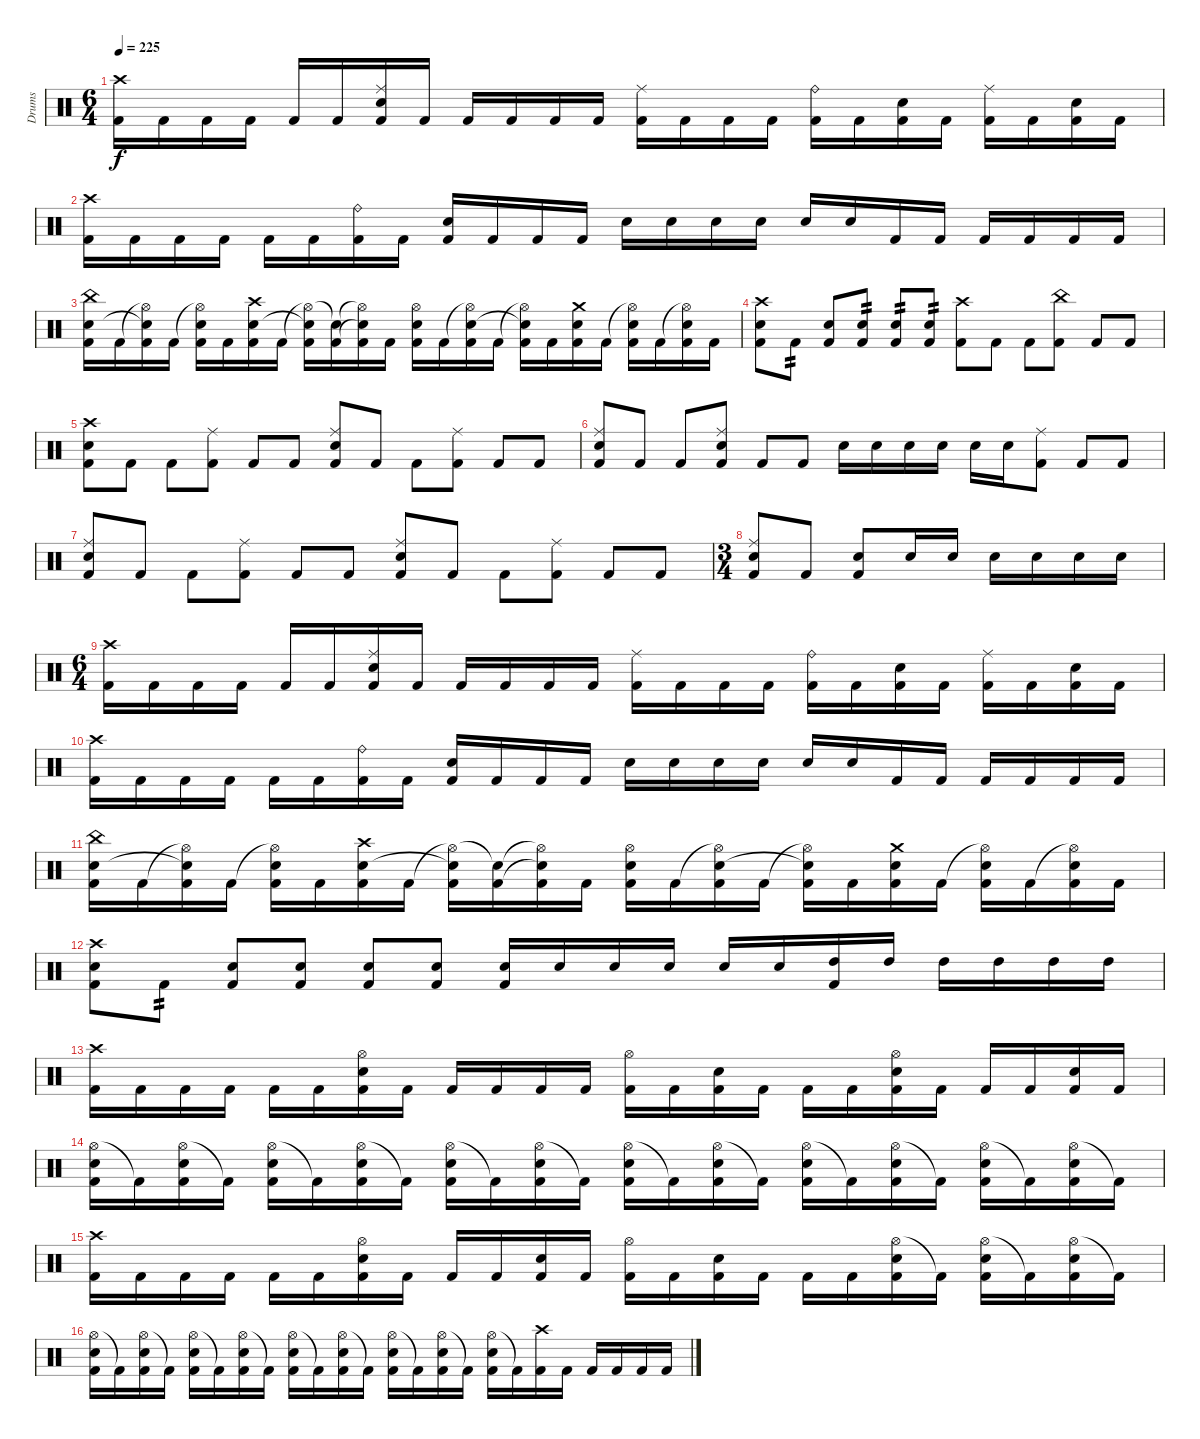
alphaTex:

\track ("Drums" "Drums") {instrument percussion}
\staff {score}
\articulation defaults
\ts (6 4)
\tempo 225
\clef neutral
\ks c
("Crash high (hit)" "Kick (hit) 2").16{dy f} "Kick (hit) 2".16 "Kick (hit) 2".16 "Kick (hit) 2".16 "Kick (hit) 2".16 "Kick (hit) 2".16 ("Ride (middle)" "Snare (hit) 2" "Kick (hit) 2").16 "Kick (hit) 2".16 "Kick (hit) 2".16 "Kick (hit) 2".16 "Kick (hit) 2".16 "Kick (hit) 2".16 ("Ride (middle)" "Kick (hit) 2").16 "Kick (hit) 2".16 "Kick (hit) 2".16 "Kick (hit) 2".16 ("Ride (bell)" "Kick (hit) 2").16 "Kick (hit) 2".16 ("Snare (hit) 2" "Kick (hit) 2").16 "Kick (hit) 2".16 ("Ride (middle)" "Kick (hit) 2").16 "Kick (hit) 2".16 ("Snare (hit) 2" "Kick (hit) 2").16 "Kick (hit) 2".16 |
("Crash high (hit)" "Kick (hit) 2").16 "Kick (hit) 2".16 "Kick (hit) 2".16 "Kick (hit) 2".16 "Kick (hit) 2".16 "Kick (hit) 2".16 ("Ride (bell)" "Kick (hit) 2").16 "Kick (hit) 2".16 ("Snare (hit) 2" "Kick (hit) 2").16 "Kick (hit) 2".16 "Kick (hit) 2".16 "Kick (hit) 2".16 "Snare (hit) 2".16 "Snare (hit) 2".16 "Snare (hit) 2".16 "Snare (hit) 2".16 "Snare (hit) 2".16 "Snare (hit) 2".16 "Kick (hit) 2".16 "Kick (hit) 2".16 "Kick (hit) 2".16 "Kick (hit) 2".16 "Kick (hit) 2".16 "Kick (hit) 2".16 |
("China (hit)" "Snare (hit) 2" "Kick (hit) 2").16 "Kick (hit) 2".16 ("Hi-Hat (open)"{t} "Snare (hit) 2"{t} "Kick (hit) 2").16 "Kick (hit) 2".16 ("Hi-Hat (open)"{t} "Snare (hit) 2" "Kick (hit) 2").16 "Kick (hit) 2".16 ("Crash high (hit)" "Snare (hit) 2" "Kick (hit) 2").16 "Kick (hit) 2".16 ("Hi-Hat (open)"{t} "Snare (hit) 2"{t} "Kick (hit) 2").16 ("Snare (hit)"{t} "Kick (hit) 2").16 ("Hi-Hat (open)"{t} "Snare (hit) 2"{t} "Kick (hit) 2").16 "Kick (hit) 2".16 ("Hi-Hat (open)" "Snare (hit) 2" "Kick (hit) 2").16 "Kick (hit) 2".16 ("Hi-Hat (open)"{t} "Snare (hit) 2" "Kick (hit) 2").16 "Kick (hit) 2".16 ("Hi-Hat (open)"{t} "Snare (hit) 2"{t} "Kick (hit) 2").16 "Kick (hit) 2".16 ("Crash medium (hit)" "Snare (hit) 2" "Kick (hit) 2").16 "Kick (hit) 2".16 ("Hi-Hat (open)"{t} "Snare (hit) 2" "Kick (hit) 2").16 "Kick (hit) 2".16 ("Hi-Hat (open)"{t} "Snare (hit) 2" "Kick (hit) 2").16 "Kick (hit) 2".16 |
("Crash high (hit)" "Snare (hit) 2" "Kick (hit) 2").8 "Kick (hit) 2".8{tp 2} ("Snare (hit) 2" "Kick (hit) 2").8 ("Snare (hit) 2" "Kick (hit) 2").8{tp 2} ("Snare (hit) 2" "Kick (hit) 2").8{tp 2} ("Snare (hit) 2" "Kick (hit) 2").8{tp 2} ("Crash high (hit)" "Kick (hit) 2").8 "Kick (hit) 2".8 "Kick (hit) 2".8 ("China (hit)" "Kick (hit) 2").8 "Kick (hit) 2".8 "Kick (hit) 2".8 |
("Crash high (hit)" "Snare (hit) 2" "Kick (hit) 2").8 "Kick (hit) 2".8 "Kick (hit) 2".8 ("Ride (middle)" "Kick (hit) 2").8 "Kick (hit) 2".8 "Kick (hit) 2".8 ("Ride (middle)" "Snare (hit) 2" "Kick (hit) 2").8 "Kick (hit) 2".8 "Kick (hit) 2".8 ("Ride (middle)" "Kick (hit) 2").8 "Kick (hit) 2".8 "Kick (hit) 2".8 |
("Ride (middle)" "Snare (hit) 2" "Kick (hit) 2").8 "Kick (hit) 2".8 "Kick (hit) 2".8 ("Ride (middle)" "Snare (hit) 2" "Kick (hit) 2").8 "Kick (hit) 2".8 "Kick (hit) 2".8 "Snare (hit) 2".16 "Snare (hit) 2".16 "Snare (hit) 2".16 "Snare (hit) 2".16 "Snare (hit) 2".16 "Snare (hit) 2".16 ("Ride (middle)" "Kick (hit) 2").8 "Kick (hit) 2".8 "Kick (hit) 2".8 |
("Ride (middle)" "Snare (hit) 2" "Kick (hit) 2").8 "Kick (hit) 2".8 "Kick (hit) 2".8 ("Ride (middle)" "Kick (hit) 2").8 "Kick (hit) 2".8 "Kick (hit) 2".8 ("Ride (middle)" "Snare (hit) 2" "Kick (hit) 2").8 "Kick (hit) 2".8 "Kick (hit) 2".8 ("Ride (middle)" "Kick (hit) 2").8 "Kick (hit) 2".8 "Kick (hit) 2".8 |
\ts (3 4)
("Ride (middle)" "Snare (hit) 2" "Kick (hit) 2").8 "Kick (hit) 2".8 ("Snare (hit) 2" "Kick (hit) 2").8 "Snare (hit) 2".16 "Snare (hit) 2".16 "Snare (hit) 2".16 "Snare (hit) 2".16 "Snare (hit) 2".16 "Snare (hit) 2".16 |
\ts (6 4)
("Crash high (hit)" "Kick (hit) 2").16 "Kick (hit) 2".16 "Kick (hit) 2".16 "Kick (hit) 2".16 "Kick (hit) 2".16 "Kick (hit) 2".16 ("Ride (middle)" "Snare (hit) 2" "Kick (hit) 2").16 "Kick (hit) 2".16 "Kick (hit) 2".16 "Kick (hit) 2".16 "Kick (hit) 2".16 "Kick (hit) 2".16 ("Ride (middle)" "Kick (hit) 2").16 "Kick (hit) 2".16 "Kick (hit) 2".16 "Kick (hit) 2".16 ("Ride (bell)" "Kick (hit) 2").16 "Kick (hit) 2".16 ("Snare (hit) 2" "Kick (hit) 2").16 "Kick (hit) 2".16 ("Ride (middle)" "Kick (hit) 2").16 "Kick (hit) 2".16 ("Snare (hit) 2" "Kick (hit) 2").16 "Kick (hit) 2".16 |
("Crash high (hit)" "Kick (hit) 2").16 "Kick (hit) 2".16 "Kick (hit) 2".16 "Kick (hit) 2".16 "Kick (hit) 2".16 "Kick (hit) 2".16 ("Ride (bell)" "Kick (hit) 2").16 "Kick (hit) 2".16 ("Snare (hit) 2" "Kick (hit) 2").16 "Kick (hit) 2".16 "Kick (hit) 2".16 "Kick (hit) 2".16 "Snare (hit) 2".16 "Snare (hit) 2".16 "Snare (hit) 2".16 "Snare (hit) 2".16 "Snare (hit) 2".16 "Snare (hit) 2".16 "Kick (hit) 2".16 "Kick (hit) 2".16 "Kick (hit) 2".16 "Kick (hit) 2".16 "Kick (hit) 2".16 "Kick (hit) 2".16 |
("China (hit)" "Snare (hit) 2" "Kick (hit) 2").16 "Kick (hit) 2".16 ("Hi-Hat (open)"{t} "Snare (hit) 2"{t} "Kick (hit) 2").16 "Kick (hit) 2".16 ("Hi-Hat (open)"{t} "Snare (hit) 2" "Kick (hit) 2").16 "Kick (hit) 2".16 ("Crash high (hit)" "Snare (hit) 2" "Kick (hit) 2").16 "Kick (hit) 2".16 ("Hi-Hat (open)"{t} "Snare (hit) 2"{t} "Kick (hit) 2").16 ("Snare (hit)"{t} "Kick (hit) 2").16 ("Hi-Hat (open)"{t} "Snare (hit) 2"{t} "Kick (hit) 2").16 "Kick (hit) 2".16 ("Hi-Hat (open)" "Snare (hit) 2" "Kick (hit) 2").16 "Kick (hit) 2".16 ("Hi-Hat (open)"{t} "Snare (hit) 2" "Kick (hit) 2").16 "Kick (hit) 2".16 ("Hi-Hat (open)"{t} "Snare (hit) 2"{t} "Kick (hit) 2").16 "Kick (hit) 2".16 ("Crash medium (hit)" "Snare (hit) 2" "Kick (hit) 2").16 "Kick (hit) 2".16 ("Hi-Hat (open)"{t} "Snare (hit) 2" "Kick (hit) 2").16 "Kick (hit) 2".16 ("Hi-Hat (open)"{t} "Snare (hit) 2" "Kick (hit) 2").16 "Kick (hit) 2".16 |
("Crash high (hit)" "Snare (hit) 2" "Kick (hit) 2").8 "Kick (hit) 2".8{tp 2} ("Snare (hit) 2" "Kick (hit) 2").8 ("Snare (hit) 2" "Kick (hit) 2").8 ("Snare (hit) 2" "Kick (hit) 2").8 ("Snare (hit) 2" "Kick (hit) 2").8 ("Snare (hit) 2" "Kick (hit) 2").16 "Snare (hit) 2".16 "Snare (hit) 2".16 "Snare (hit) 2".16 "Snare (hit) 2".16 "Snare (hit) 2".16 ("Kick (hit) 2" "High Tom (hit)").16 "High Tom (hit)".16 "High Tom (hit)".16 "High Tom (hit)".16 "High Tom (hit)".16 "High Tom (hit)".16 |
("Crash high (hit)" "Kick (hit) 2").16 "Kick (hit) 2".16 "Kick (hit) 2".16 "Kick (hit) 2".16 "Kick (hit) 2".16 "Kick (hit) 2".16 ("Hi-Hat (open)" "Snare (hit) 2" "Kick (hit) 2").16 "Kick (hit) 2".16 "Kick (hit) 2".16 "Kick (hit) 2".16 "Kick (hit) 2".16 "Kick (hit) 2".16 ("Hi-Hat (open)" "Kick (hit) 2").16 "Kick (hit) 2".16 ("Snare (hit) 2" "Kick (hit) 2").16 "Kick (hit) 2".16 "Kick (hit) 2".16 "Kick (hit) 2".16 ("Hi-Hat (open)" "Snare (hit) 2" "Kick (hit) 2").16 "Kick (hit) 2".16 "Kick (hit) 2".16 "Kick (hit) 2".16 ("Snare (hit) 2" "Kick (hit) 2").16 "Kick (hit) 2".16 |
("Hi-Hat (open)" "Snare (hit) 2" "Kick (hit) 2").16 "Kick (hit) 2"{t}.16 ("Hi-Hat (open)" "Snare (hit) 2" "Kick (hit) 2").16 "Kick (hit) 2"{t}.16 ("Hi-Hat (open)" "Snare (hit) 2" "Kick (hit) 2").16 "Kick (hit) 2"{t}.16 ("Hi-Hat (open)" "Snare (hit) 2" "Kick (hit) 2").16 "Kick (hit) 2"{t}.16 ("Hi-Hat (open)" "Snare (hit) 2" "Kick (hit) 2").16 "Kick (hit) 2"{t}.16 ("Hi-Hat (open)" "Snare (hit) 2" "Kick (hit) 2").16 "Kick (hit) 2"{t}.16 ("Hi-Hat (open)" "Snare (hit) 2" "Kick (hit) 2").16 "Kick (hit) 2"{t}.16 ("Hi-Hat (open)" "Snare (hit) 2" "Kick (hit) 2").16 "Kick (hit) 2"{t}.16 ("Hi-Hat (open)" "Snare (hit) 2" "Kick (hit) 2").16 "Kick (hit) 2"{t}.16 ("Hi-Hat (open)" "Snare (hit) 2" "Kick (hit) 2").16 "Kick (hit) 2"{t}.16 ("Hi-Hat (open)" "Snare (hit) 2" "Kick (hit) 2").16 "Kick (hit) 2"{t}.16 ("Hi-Hat (open)" "Snare (hit) 2" "Kick (hit) 2").16 "Kick (hit) 2"{t}.16 |
("Crash high (hit)" "Kick (hit) 2").16 "Kick (hit) 2".16 "Kick (hit) 2".16 "Kick (hit) 2".16 "Kick (hit) 2".16 "Kick (hit) 2".16 ("Hi-Hat (open)" "Snare (hit) 2" "Kick (hit) 2").16 "Kick (hit) 2".16 "Kick (hit) 2".16 "Kick (hit) 2".16 ("Snare (hit) 2" "Kick (hit) 2").16 "Kick (hit) 2".16 ("Hi-Hat (open)" "Kick (hit) 2").16 "Kick (hit) 2".16 ("Snare (hit) 2" "Kick (hit) 2").16 "Kick (hit) 2".16 "Kick (hit) 2".16 "Kick (hit) 2".16 ("Hi-Hat (open)" "Snare (hit) 2" "Kick (hit) 2").16 "Kick (hit) 2"{t}.16 ("Hi-Hat (open)" "Snare (hit) 2" "Kick (hit) 2").16 "Kick (hit) 2"{t}.16 ("Hi-Hat (open)" "Snare (hit) 2" "Kick (hit) 2").16 "Kick (hit) 2"{t}.16 |
("Hi-Hat (open)" "Snare (hit) 2" "Kick (hit) 2").16 "Kick (hit) 2"{t}.16 ("Hi-Hat (open)" "Snare (hit) 2" "Kick (hit) 2").16 "Kick (hit) 2"{t}.16 ("Hi-Hat (open)" "Snare (hit) 2" "Kick (hit) 2").16 "Kick (hit) 2"{t}.16 ("Hi-Hat (open)" "Snare (hit) 2" "Kick (hit) 2").16 "Kick (hit) 2"{t}.16 ("Hi-Hat (open)" "Snare (hit) 2" "Kick (hit) 2").16 "Kick (hit) 2"{t}.16 ("Hi-Hat (open)" "Snare (hit) 2" "Kick (hit) 2").16 "Kick (hit) 2"{t}.16 ("Hi-Hat (open)" "Snare (hit) 2" "Kick (hit) 2").16 "Kick (hit) 2"{t}.16 ("Hi-Hat (open)" "Snare (hit) 2" "Kick (hit) 2").16 "Kick (hit) 2"{t}.16 ("Hi-Hat (open)" "Snare (hit) 2" "Kick (hit) 2").16 "Kick (hit) 2"{t}.16 ("Crash high (hit)" "Kick (hit) 2").16 "Kick (hit) 2".16 "Kick (hit) 2".16 "Kick (hit) 2".16 "Kick (hit) 2".16 "Kick (hit) 2".16
